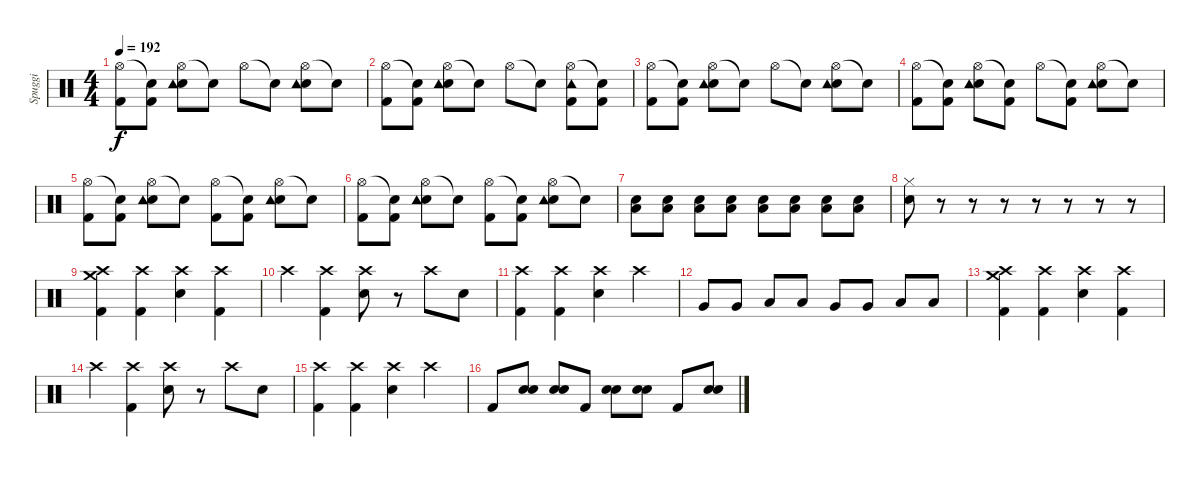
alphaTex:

\track ("Spuggi" "Spuggi") {instrument percussion}
\staff {score}
\articulation defaults
\ts (4 4)
\tempo 192
\clef neutral
\ks c
("Hi-Hat (open)" "Kick (hit) 2").8{dy f} ("Snare (hit)"{t} "Kick (hit) 2").8 ("Hi-Hat (open)" "Electric Snare (hit)" "Tambourine (hit)").8 "Snare (hit)"{t}.8 "Hi-Hat (open)".8 "Snare (hit)"{t}.8 ("Hi-Hat (open)" "Electric Snare (hit)" "Tambourine (hit)").8 "Snare (hit)"{t}.8 |
("Hi-Hat (open)" "Kick (hit) 2").8 ("Snare (hit)"{t} "Kick (hit) 2").8 ("Hi-Hat (open)" "Electric Snare (hit)" "Tambourine (hit)").8 "Snare (hit)"{t}.8 "Hi-Hat (open)".8 "Snare (hit)"{t}.8 ("Hi-Hat (open)" "Kick (hit) 2" "Tambourine (hit)").8 ("Snare (hit)"{t} "Kick (hit) 2").8 |
("Hi-Hat (open)" "Kick (hit) 2").8 ("Snare (hit)"{t} "Kick (hit) 2").8 ("Hi-Hat (open)" "Electric Snare (hit)" "Tambourine (hit)").8 "Snare (hit)"{t}.8 "Hi-Hat (open)".8 "Snare (hit)"{t}.8 ("Hi-Hat (open)" "Electric Snare (hit)" "Tambourine (hit)").8 "Snare (hit)"{t}.8 |
("Hi-Hat (open)" "Kick (hit) 2").8 ("Snare (hit)"{t} "Kick (hit) 2").8 ("Hi-Hat (open)" "Electric Snare (hit)" "Tambourine (hit)").8 ("Snare (hit)"{t} "Kick (hit) 2").8 "Hi-Hat (open)".8 ("Snare (hit)"{t} "Kick (hit) 2").8 ("Hi-Hat (open)" "Electric Snare (hit)" "Tambourine (hit)").8 "Snare (hit)"{t}.8 |
("Hi-Hat (open)" "Kick (hit) 2").8 ("Snare (hit)"{t} "Kick (hit) 2").8 ("Hi-Hat (open)" "Electric Snare (hit)" "Tambourine (hit)").8 "Snare (hit)"{t}.8 ("Hi-Hat (open)" "Kick (hit) 2").8 ("Snare (hit)"{t} "Kick (hit) 2").8 ("Hi-Hat (open)" "Electric Snare (hit)" "Tambourine (hit)").8 "Snare (hit)"{t}.8 |
("Hi-Hat (open)" "Kick (hit) 2").8 ("Snare (hit)"{t} "Kick (hit) 2").8 ("Hi-Hat (open)" "Electric Snare (hit)" "Tambourine (hit)").8 "Snare (hit)"{t}.8 ("Hi-Hat (open)" "Kick (hit) 2").8 ("Snare (hit)"{t} "Kick (hit) 2").8 ("Hi-Hat (open)" "Electric Snare (hit)" "Tambourine (hit)").8 "Snare (hit)"{t}.8 |
("Low Tom (hit)" "Snare (hit) 2").8 ("Low Tom (hit)" "Snare (hit) 2").8 ("Low Tom (hit)" "Snare (hit) 2").8 ("Low Tom (hit)" "Snare (hit) 2").8 ("Low Tom (hit)" "Snare (hit) 2").8 ("Low Tom (hit)" "Snare (hit) 2").8 ("Low Tom (hit)" "Snare (hit) 2").8 ("Low Tom (hit)" "Snare (hit) 2").8 |
("Hi-Hat (closed)" "Snare (hit) 2").8 r.8 r.8 r.8 r.8 r.8 r.8 r.8 |
("Crash high (hit)" "Crash medium (hit)" "Kick (hit) 2").4 ("Crash high (hit)" "Kick (hit) 2").4 ("Crash high (hit)" "Snare (hit) 2").4 ("Crash high (hit)" "Kick (hit) 2").4 |
"Crash high (hit)".4 ("Crash high (hit)" "Kick (hit) 2").4 ("Crash high (hit)" "Snare (hit) 2").8 r.8 "Crash high (hit)".8 "Snare (hit) 2".8 |
("Crash high (hit)" "Kick (hit) 2").4 ("Crash high (hit)" "Kick (hit) 2").4 ("Crash high (hit)" "Snare (hit) 2").4 "Crash high (hit)".4 |
"Very Low Tom (hit)".8 "Very Low Tom (hit)".8 "Low Tom (hit)".8 "Low Tom (hit)".8 "Very Low Tom (hit)".8 "Very Low Tom (hit)".8 "Low Floor Tom (hit)".8 "Low Floor Tom (hit)".8 |
("Crash high (hit)" "Crash medium (hit)" "Kick (hit) 2").4 ("Crash high (hit)" "Kick (hit) 2").4 ("Crash high (hit)" "Snare (hit) 2").4 ("Crash high (hit)" "Kick (hit) 2").4 |
"Crash high (hit)".4 ("Crash high (hit)" "Kick (hit) 2").4 ("Crash high (hit)" "Snare (hit) 2").8 r.8 "Crash high (hit)".8 "Snare (hit) 2".8 |
("Crash high (hit)" "Kick (hit) 2").4 ("Crash high (hit)" "Kick (hit) 2").4 ("Crash high (hit)" "Snare (hit) 2").4 "Crash high (hit)".4 |
"Kick (hit) 2".8 ("Snare (hit) 2" "Snare (hit) 2").8 ("Snare (hit) 2" "Snare (hit) 2").8 "Kick (hit) 2".8 ("Snare (hit) 2" "Snare (hit) 2").8 ("Snare (hit) 2" "Snare (hit) 2").8 "Kick (hit) 2".8 ("Snare (hit) 2" "Snare (hit) 2").8
